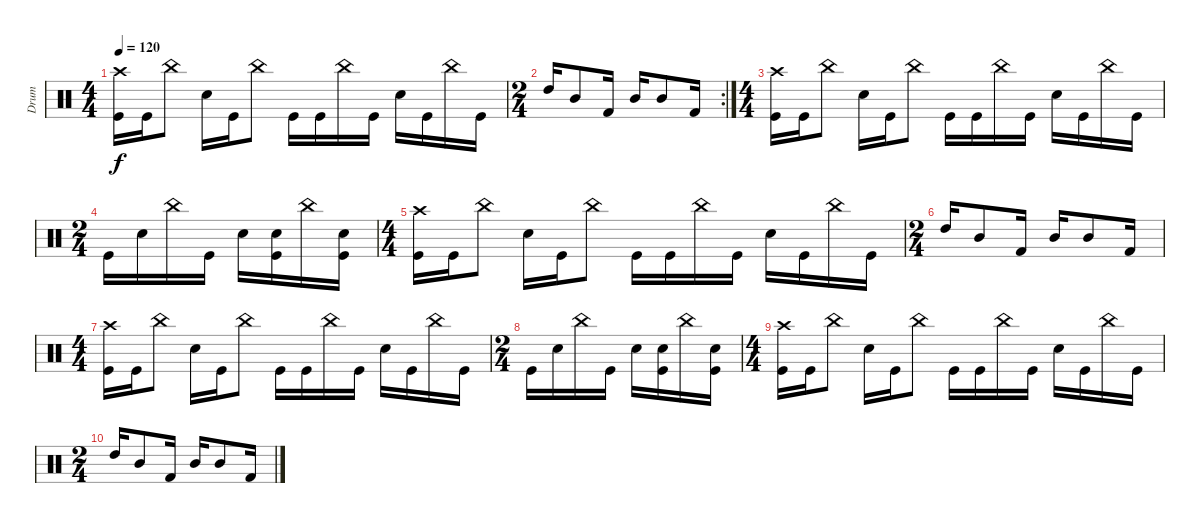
\track ("Drum" "Drum") {instrument percussion}
\staff {score}
\articulation defaults
\ts (4 4)
\tempo 120
\clef neutral
\ks c
("Crash high (hit)" "Kick (hit)").16{dy f} "Kick (hit)".16 "China (hit)".8 "Electric Snare (hit)".16 "Kick (hit)".16 "China (hit)".8 "Kick (hit)".16 "Kick (hit)".16 "China (hit)".16 "Kick (hit)".16 "Electric Snare (hit)".16 "Kick (hit)".16 "China (hit)".16 "Kick (hit)".16 |
\rc 2
\ts (2 4)
"High Tom (hit)".16 "Mid Tom (hit)".8 "Kick (hit) 2".16 "Mid Tom (hit)".16 "Mid Tom (hit)".8 "Kick (hit) 2".16 |
\ts (4 4)
("Crash high (hit)" "Kick (hit)").16 "Kick (hit)".16 "China (hit)".8 "Electric Snare (hit)".16 "Kick (hit)".16 "China (hit)".8 "Kick (hit)".16 "Kick (hit)".16 "China (hit)".16 "Kick (hit)".16 "Electric Snare (hit)".16 "Kick (hit)".16 "China (hit)".16 "Kick (hit)".16 |
\ts (2 4)
"Kick (hit)".16 "Electric Snare (hit)".16 "China (hit)".16 "Kick (hit)".16 "Electric Snare (hit)".16 ("Electric Snare (hit)" "Kick (hit)").16 "China (hit)".16 ("Electric Snare (hit)" "Kick (hit)").16 |
\ts (4 4)
("Crash high (hit)" "Kick (hit)").16 "Kick (hit)".16 "China (hit)".8 "Electric Snare (hit)".16 "Kick (hit)".16 "China (hit)".8 "Kick (hit)".16 "Kick (hit)".16 "China (hit)".16 "Kick (hit)".16 "Electric Snare (hit)".16 "Kick (hit)".16 "China (hit)".16 "Kick (hit)".16 |
\ts (2 4)
"High Tom (hit)".16 "Mid Tom (hit)".8 "Kick (hit) 2".16 "Mid Tom (hit)".16 "Mid Tom (hit)".8 "Kick (hit) 2".16 |
\ts (4 4)
("Crash high (hit)" "Kick (hit)").16 "Kick (hit)".16 "China (hit)".8 "Electric Snare (hit)".16 "Kick (hit)".16 "China (hit)".8 "Kick (hit)".16 "Kick (hit)".16 "China (hit)".16 "Kick (hit)".16 "Electric Snare (hit)".16 "Kick (hit)".16 "China (hit)".16 "Kick (hit)".16 |
\ts (2 4)
"Kick (hit)".16 "Electric Snare (hit)".16 "China (hit)".16 "Kick (hit)".16 "Electric Snare (hit)".16 ("Electric Snare (hit)" "Kick (hit)").16 "China (hit)".16 ("Electric Snare (hit)" "Kick (hit)").16 |
\ts (4 4)
("Crash high (hit)" "Kick (hit)").16 "Kick (hit)".16 "China (hit)".8 "Electric Snare (hit)".16 "Kick (hit)".16 "China (hit)".8 "Kick (hit)".16 "Kick (hit)".16 "China (hit)".16 "Kick (hit)".16 "Electric Snare (hit)".16 "Kick (hit)".16 "China (hit)".16 "Kick (hit)".16 |
\ts (2 4)
"High Tom (hit)".16 "Mid Tom (hit)".8 "Kick (hit) 2".16 "Mid Tom (hit)".16 "Mid Tom (hit)".8 "Kick (hit) 2".16
